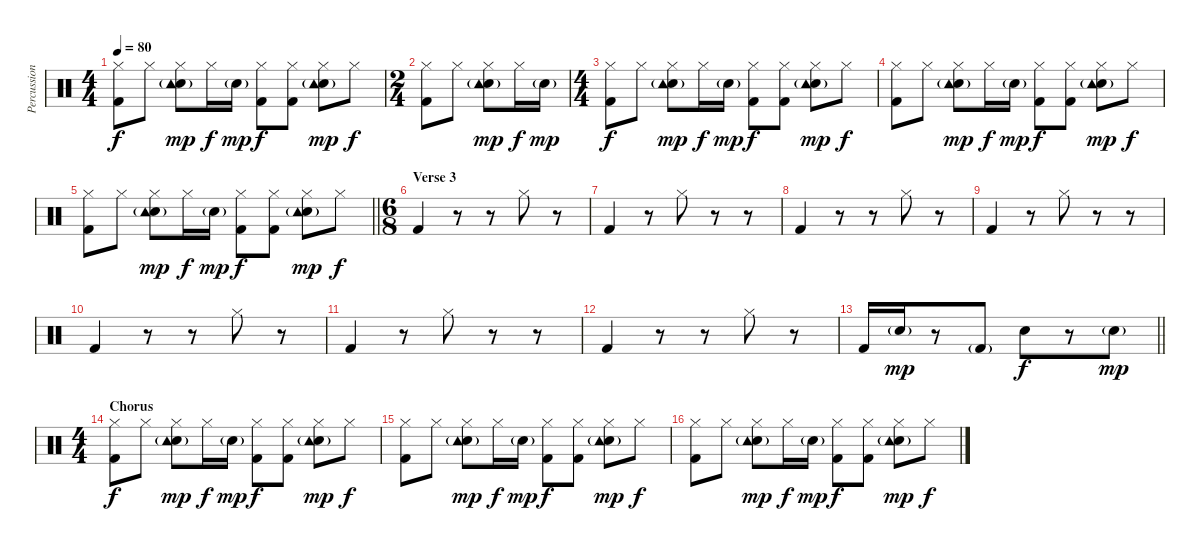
\track ("Percussion" "Percussion") {instrument percussion}
\staff {score}
\articulation defaults
\ts (4 4)
\tempo 80
\clef neutral
\ks c
("Hi-Hat (closed)" "Kick (hit) 2").8{dy f} "Hi-Hat (closed)".8 ("Hi-Hat (closed)" "Snare (hit) 2" "Tambourine (hit)"{g}).8{dy mp} "Hi-Hat (closed)".16{dy f} "Snare (hit) 2"{g}.16{dy mp} ("Hi-Hat (closed)" "Kick (hit) 2").8{dy f} ("Hi-Hat (closed)" "Kick (hit) 2").8 ("Hi-Hat (closed)" "Snare (hit) 2" "Tambourine (hit)"{g}).8{dy mp} "Hi-Hat (closed)".8{dy f} |
\ts (2 4)
("Hi-Hat (closed)" "Kick (hit) 2").8 "Hi-Hat (closed)".8 ("Hi-Hat (closed)" "Snare (hit) 2" "Tambourine (hit)"{g}).8{dy mp} "Hi-Hat (closed)".16{dy f} "Snare (hit) 2"{g}.16{dy mp} |
\ts (4 4)
("Hi-Hat (closed)" "Kick (hit) 2").8{dy f} "Hi-Hat (closed)".8 ("Hi-Hat (closed)" "Snare (hit) 2" "Tambourine (hit)"{g}).8{dy mp} "Hi-Hat (closed)".16{dy f} "Snare (hit) 2"{g}.16{dy mp} ("Hi-Hat (closed)" "Kick (hit) 2").8{dy f} ("Hi-Hat (closed)" "Kick (hit) 2").8 ("Hi-Hat (closed)" "Snare (hit) 2" "Tambourine (hit)"{g}).8{dy mp} "Hi-Hat (closed)".8{dy f} |
("Hi-Hat (closed)" "Kick (hit) 2").8 "Hi-Hat (closed)".8 ("Hi-Hat (closed)" "Snare (hit) 2" "Tambourine (hit)"{g}).8{dy mp} "Hi-Hat (closed)".16{dy f} "Snare (hit) 2"{g}.16{dy mp} ("Hi-Hat (closed)" "Kick (hit) 2").8{dy f} ("Hi-Hat (closed)" "Kick (hit) 2").8 ("Hi-Hat (closed)" "Snare (hit) 2" "Tambourine (hit)"{g}).8{dy mp} "Hi-Hat (closed)".8{dy f} |
\barLineRight lightlight
("Hi-Hat (closed)" "Kick (hit) 2").8 "Hi-Hat (closed)".8 ("Hi-Hat (closed)" "Snare (hit) 2" "Tambourine (hit)"{g}).8{dy mp} "Hi-Hat (closed)".16{dy f} "Snare (hit) 2"{g}.16{dy mp} ("Hi-Hat (closed)" "Kick (hit) 2").8{dy f} ("Hi-Hat (closed)" "Kick (hit) 2").8 ("Hi-Hat (closed)" "Snare (hit) 2" "Tambourine (hit)"{g}).8{dy mp} "Hi-Hat (closed)".8{dy f} |
\ts (6 8)
\section ("" "Verse 3")
"Kick (hit) 2".4{volume 6} r.8 r.8 "Hi-Hat (closed)".8{volume 13} r.8 |
"Kick (hit) 2".4{volume 6} r.8 "Hi-Hat (closed)".8{volume 13} r.8 r.8 |
"Kick (hit) 2".4{volume 6} r.8 r.8 "Hi-Hat (closed)".8{volume 13} r.8 |
"Kick (hit) 2".4{volume 6} r.8 "Hi-Hat (closed)".8{volume 13} r.8 r.8 |
"Kick (hit) 2".4{volume 6} r.8 r.8 "Hi-Hat (closed)".8{volume 13} r.8 |
"Kick (hit) 2".4{volume 6} r.8 "Hi-Hat (closed)".8{volume 13} r.8 r.8 |
"Kick (hit) 2".4{volume 6} r.8 r.8 "Hi-Hat (closed)".8{volume 13} r.8 |
\barLineRight lightlight "Kick (hit) 2".16{volume 6} "Snare (hit) 2"{g}.16{dy mp}
r.8 "Kick (hit) 2"{g}.8 "Snare (hit) 2".8{dy f} r.8 "Snare (hit) 2"{g}.8{dy mp} |
\ts (4 4)
\section ("" "Chorus")
("Hi-Hat (closed)" "Kick (hit) 2").8{dy f} "Hi-Hat (closed)".8 ("Hi-Hat (closed)" "Snare (hit) 2" "Tambourine (hit)"{g}).8{dy mp} "Hi-Hat (closed)".16{dy f} "Snare (hit) 2"{g}.16{dy mp} ("Hi-Hat (closed)" "Kick (hit) 2").8{dy f} ("Hi-Hat (closed)" "Kick (hit) 2").8 ("Hi-Hat (closed)" "Snare (hit) 2" "Tambourine (hit)"{g}).8{dy mp} "Hi-Hat (closed)".8{dy f} |
("Hi-Hat (closed)" "Kick (hit) 2").8 "Hi-Hat (closed)".8 ("Hi-Hat (closed)" "Snare (hit) 2" "Tambourine (hit)"{g}).8{dy mp} "Hi-Hat (closed)".16{dy f} "Snare (hit) 2"{g}.16{dy mp} ("Hi-Hat (closed)" "Kick (hit) 2").8{dy f} ("Hi-Hat (closed)" "Kick (hit) 2").8 ("Hi-Hat (closed)" "Snare (hit) 2" "Tambourine (hit)"{g}).8{dy mp} "Hi-Hat (closed)".8{dy f} |
("Hi-Hat (closed)" "Kick (hit) 2").8 "Hi-Hat (closed)".8 ("Hi-Hat (closed)" "Snare (hit) 2" "Tambourine (hit)"{g}).8{dy mp} "Hi-Hat (closed)".16{dy f} "Snare (hit) 2"{g}.16{dy mp} ("Hi-Hat (closed)" "Kick (hit) 2").8{dy f} ("Hi-Hat (closed)" "Kick (hit) 2").8 ("Hi-Hat (closed)" "Snare (hit) 2" "Tambourine (hit)"{g}).8{dy mp} "Hi-Hat (closed)".8{dy f}
